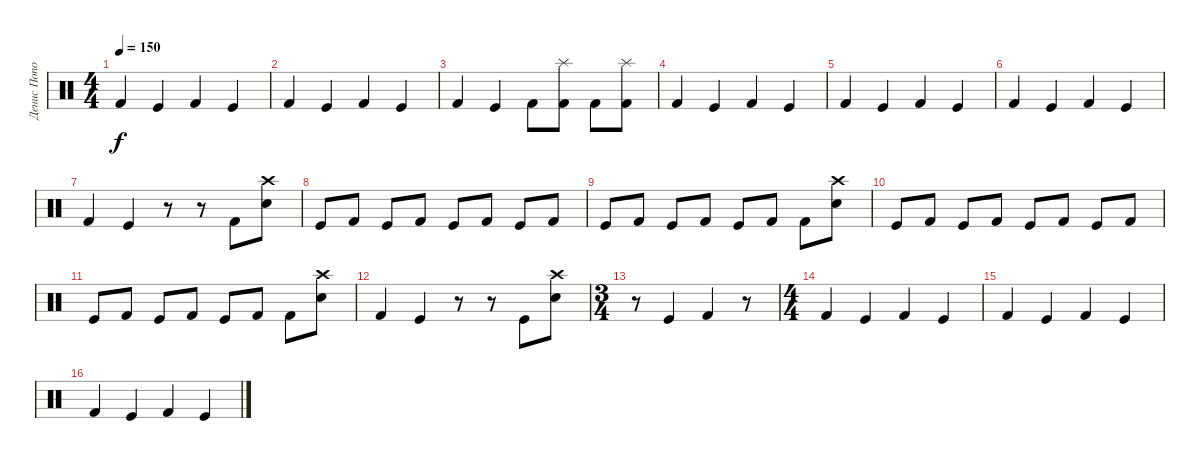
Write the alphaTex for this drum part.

\track ("Денис Попов" "Денис Попо") {instrument percussion}
\staff
\articulation defaults
\ts (4 4)
\tempo 150
\clef neutral
\ks c "Kick (hit) 2".4{dy f} "Kick (hit)".4 "Kick (hit) 2".4 "Kick (hit)".4
|
"Kick (hit) 2".4 "Kick (hit)".4 "Kick (hit) 2".4 "Kick (hit)".4 |
"Kick (hit) 2".4 "Kick (hit)".4 "Kick (hit) 2".8 ("Splash (hit)" "Kick (hit) 2").8 "Kick (hit) 2".8 ("Splash (hit)" "Kick (hit) 2").8 |
"Kick (hit) 2".4 "Kick (hit)".4 "Kick (hit) 2".4 "Kick (hit)".4 |
"Kick (hit) 2".4 "Kick (hit)".4 "Kick (hit) 2".4 "Kick (hit)".4 |
"Kick (hit) 2".4 "Kick (hit)".4 "Kick (hit) 2".4 "Kick (hit)".4 |
"Kick (hit) 2".4 "Kick (hit)".4 r.8 r.8 "Kick (hit) 2".8 ("Crash high (hit)" "Snare (hit) 2").8 |
"Kick (hit)".8 "Kick (hit) 2".8 "Kick (hit)".8 "Kick (hit) 2".8 "Kick (hit)".8 "Kick (hit) 2".8 "Kick (hit)".8 "Kick (hit) 2".8 |
"Kick (hit)".8 "Kick (hit) 2".8 "Kick (hit)".8 "Kick (hit) 2".8 "Kick (hit)".8 "Kick (hit) 2".8 "Kick (hit) 2".8 ("Crash high (hit)" "Snare (hit) 2").8 |
"Kick (hit)".8 "Kick (hit) 2".8 "Kick (hit)".8 "Kick (hit) 2".8 "Kick (hit)".8 "Kick (hit) 2".8 "Kick (hit)".8 "Kick (hit) 2".8 |
"Kick (hit)".8 "Kick (hit) 2".8 "Kick (hit)".8 "Kick (hit) 2".8 "Kick (hit)".8 "Kick (hit) 2".8 "Kick (hit) 2".8 ("Crash high (hit)" "Snare (hit) 2").8 |
"Kick (hit) 2".4 "Kick (hit)".4 r.8 r.8 "Kick (hit)".8 ("Crash high (hit)" "Snare (hit) 2").8 |
\ts (3 4)
r.8 "Kick (hit)".4 "Kick (hit) 2".4 r.8 |
\ts (4 4)
"Kick (hit) 2".4 "Kick (hit)".4 "Kick (hit) 2".4 "Kick (hit)".4 |
"Kick (hit) 2".4 "Kick (hit)".4 "Kick (hit) 2".4 "Kick (hit)".4 |
"Kick (hit) 2".4 "Kick (hit)".4 "Kick (hit) 2".4 "Kick (hit)".4
